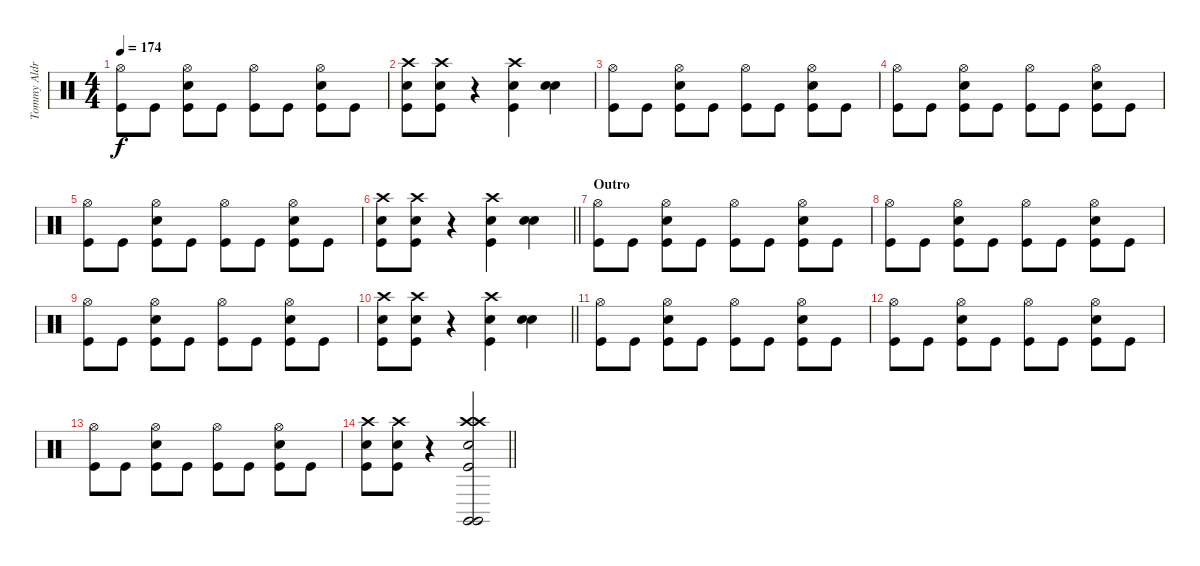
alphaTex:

\track ("Tommy Aldrige" "Tommy Aldr") {instrument percussion}
\staff {score}
\articulation defaults
\ts (4 4)
\tempo 174
\clef neutral
\ks c
("Hi-Hat (open)" "Kick (hit)").8{dy f} "Kick (hit)".8 ("Hi-Hat (open)" "Kick (hit)" "Snare (hit) 2").8 "Kick (hit)".8 ("Hi-Hat (open)" "Kick (hit)").8 "Kick (hit)".8 ("Hi-Hat (open)" "Kick (hit)" "Snare (hit) 2").8 "Kick (hit)".8 |
("Crash high (hit)" "Kick (hit)" "Snare (hit) 2").8 ("Crash high (hit)" "Kick (hit)" "Snare (hit) 2").8 r.4 ("Crash high (hit)" "Kick (hit)" "Snare (hit) 2").4 ("Snare (hit) 2" "Snare (hit) 2").4{bu 240} |
("Hi-Hat (open)" "Kick (hit)").8 "Kick (hit)".8 ("Hi-Hat (open)" "Kick (hit)" "Snare (hit) 2").8 "Kick (hit)".8 ("Hi-Hat (open)" "Kick (hit)").8 "Kick (hit)".8 ("Hi-Hat (open)" "Kick (hit)" "Snare (hit) 2").8 "Kick (hit)".8 |
("Hi-Hat (open)" "Kick (hit)").8 "Kick (hit)".8 ("Hi-Hat (open)" "Kick (hit)" "Snare (hit) 2").8 "Kick (hit)".8 ("Hi-Hat (open)" "Kick (hit)").8 "Kick (hit)".8 ("Hi-Hat (open)" "Kick (hit)" "Snare (hit) 2").8 "Kick (hit)".8 |
("Hi-Hat (open)" "Kick (hit)").8 "Kick (hit)".8 ("Hi-Hat (open)" "Kick (hit)" "Snare (hit) 2").8 "Kick (hit)".8 ("Hi-Hat (open)" "Kick (hit)").8 "Kick (hit)".8 ("Hi-Hat (open)" "Kick (hit)" "Snare (hit) 2").8 "Kick (hit)".8 |
\barLineRight lightlight
("Crash high (hit)" "Kick (hit)" "Snare (hit) 2").8 ("Crash high (hit)" "Kick (hit)" "Snare (hit) 2").8 r.4 ("Crash high (hit)" "Kick (hit)" "Snare (hit) 2").4 ("Snare (hit) 2" "Snare (hit) 2").4{bu 240} |
\section ("" "Outro")
("Hi-Hat (open)" "Kick (hit)").8 "Kick (hit)".8 ("Hi-Hat (open)" "Kick (hit)" "Snare (hit) 2").8 "Kick (hit)".8 ("Hi-Hat (open)" "Kick (hit)").8 "Kick (hit)".8 ("Hi-Hat (open)" "Kick (hit)" "Snare (hit) 2").8 "Kick (hit)".8 |
("Hi-Hat (open)" "Kick (hit)").8 "Kick (hit)".8 ("Hi-Hat (open)" "Kick (hit)" "Snare (hit) 2").8 "Kick (hit)".8 ("Hi-Hat (open)" "Kick (hit)").8 "Kick (hit)".8 ("Hi-Hat (open)" "Kick (hit)" "Snare (hit) 2").8 "Kick (hit)".8 |
("Hi-Hat (open)" "Kick (hit)").8 "Kick (hit)".8 ("Hi-Hat (open)" "Kick (hit)" "Snare (hit) 2").8 "Kick (hit)".8 ("Hi-Hat (open)" "Kick (hit)").8 "Kick (hit)".8 ("Hi-Hat (open)" "Kick (hit)" "Snare (hit) 2").8 "Kick (hit)".8 |
\barLineRight lightlight
("Crash high (hit)" "Kick (hit)" "Snare (hit) 2").8 ("Crash high (hit)" "Kick (hit)" "Snare (hit) 2").8 r.4 ("Crash high (hit)" "Kick (hit)" "Snare (hit) 2").4 ("Snare (hit) 2" "Snare (hit) 2").4{bu 240} |
("Hi-Hat (open)" "Kick (hit)").8 "Kick (hit)".8 ("Hi-Hat (open)" "Kick (hit)" "Snare (hit) 2").8 "Kick (hit)".8 ("Hi-Hat (open)" "Kick (hit)").8 "Kick (hit)".8 ("Hi-Hat (open)" "Kick (hit)" "Snare (hit) 2").8 "Kick (hit)".8 |
("Hi-Hat (open)" "Kick (hit)").8 "Kick (hit)".8 ("Hi-Hat (open)" "Kick (hit)" "Snare (hit) 2").8 "Kick (hit)".8 ("Hi-Hat (open)" "Kick (hit)").8 "Kick (hit)".8 ("Hi-Hat (open)" "Kick (hit)" "Snare (hit) 2").8 "Kick (hit)".8 |
("Hi-Hat (open)" "Kick (hit)").8 "Kick (hit)".8 ("Hi-Hat (open)" "Kick (hit)" "Snare (hit) 2").8 "Kick (hit)".8 ("Hi-Hat (open)" "Kick (hit)").8 "Kick (hit)".8 ("Hi-Hat (open)" "Kick (hit)" "Snare (hit) 2").8 "Kick (hit)".8 |
\barLineRight lightlight
("Crash high (hit)" "Kick (hit)" "Snare (hit) 2").8 ("Crash high (hit)" "Kick (hit)" "Snare (hit) 2").8 r.4 ("Crash high (hit)" "Kick (hit)" "Snare (hit) 2" "Claves (hit)" "Crash high (hit)" "Claves (hit)").2
